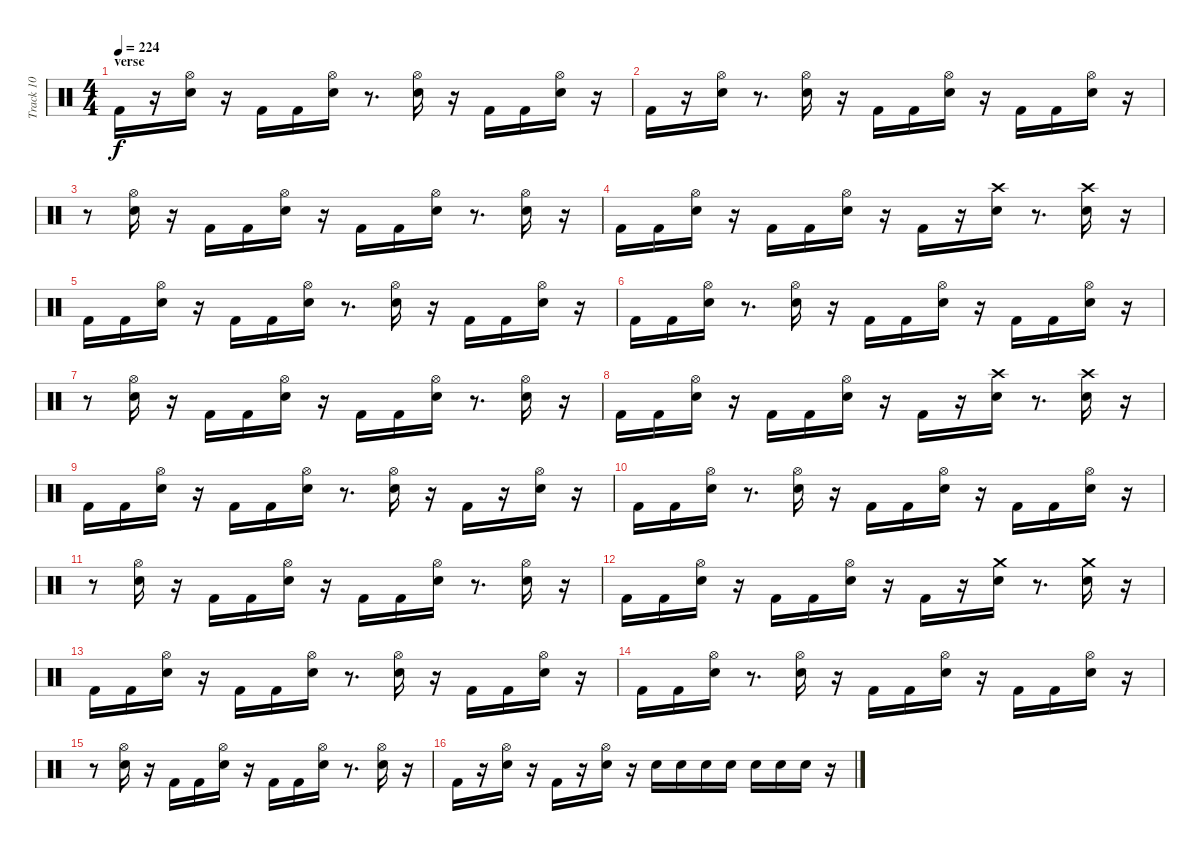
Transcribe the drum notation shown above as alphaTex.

\track ("Track 10" "Track 10") {instrument percussion}
\staff {score}
\articulation defaults
\ts (4 4)
\section ("" "verse")
\tempo 224
\clef neutral
\ks c "Kick (hit) 2".16{dy f}
r.16 ("Snare (hit) 2" "Hi-Hat (open)").16 r.16 "Kick (hit) 2".16 "Kick (hit) 2".16 ("Snare (hit) 2" "Hi-Hat (open)").16 r.8{d} ("Snare (hit) 2" "Hi-Hat (open)").16 r.16 "Kick (hit) 2".16 "Kick (hit) 2".16 ("Snare (hit) 2" "Hi-Hat (open)").16 r.16 |
"Kick (hit) 2".16 r.16 ("Snare (hit) 2" "Hi-Hat (open)").16 r.8{d} ("Snare (hit) 2" "Hi-Hat (open)").16 r.16 "Kick (hit) 2".16 "Kick (hit) 2".16 ("Snare (hit) 2" "Hi-Hat (open)").16 r.16 "Kick (hit) 2".16 "Kick (hit) 2".16 ("Snare (hit) 2" "Hi-Hat (open)").16 r.16 |
r.8 ("Snare (hit) 2" "Hi-Hat (open)").16 r.16 "Kick (hit) 2".16 "Kick (hit) 2".16 ("Snare (hit) 2" "Hi-Hat (open)").16 r.16 "Kick (hit) 2".16 "Kick (hit) 2".16 ("Snare (hit) 2" "Hi-Hat (open)").16 r.8{d} ("Snare (hit) 2" "Hi-Hat (open)").16 r.16 |
"Kick (hit) 2".16 "Kick (hit) 2".16 ("Snare (hit) 2" "Hi-Hat (open)").16 r.16 "Kick (hit) 2".16 "Kick (hit) 2".16 ("Snare (hit) 2" "Hi-Hat (open)").16 r.16 "Kick (hit) 2".16 r.16 ("Snare (hit) 2" "Crash high (hit)").16 r.8{d} ("Snare (hit) 2" "Crash high (hit)").16 r.16 |
"Kick (hit) 2".16 "Kick (hit) 2".16 ("Snare (hit) 2" "Hi-Hat (open)").16 r.16 "Kick (hit) 2".16 "Kick (hit) 2".16 ("Snare (hit) 2" "Hi-Hat (open)").16 r.8{d} ("Snare (hit) 2" "Hi-Hat (open)").16 r.16 "Kick (hit) 2".16 "Kick (hit) 2".16 ("Snare (hit) 2" "Hi-Hat (open)").16 r.16 |
"Kick (hit) 2".16 "Kick (hit) 2".16 ("Snare (hit) 2" "Hi-Hat (open)").16 r.8{d} ("Snare (hit) 2" "Hi-Hat (open)").16 r.16 "Kick (hit) 2".16 "Kick (hit) 2".16 ("Snare (hit) 2" "Hi-Hat (open)").16 r.16 "Kick (hit) 2".16 "Kick (hit) 2".16 ("Snare (hit) 2" "Hi-Hat (open)").16 r.16 |
r.8 ("Snare (hit) 2" "Hi-Hat (open)").16 r.16 "Kick (hit) 2".16 "Kick (hit) 2".16 ("Snare (hit) 2" "Hi-Hat (open)").16 r.16 "Kick (hit) 2".16 "Kick (hit) 2".16 ("Snare (hit) 2" "Hi-Hat (open)").16 r.8{d} ("Snare (hit) 2" "Hi-Hat (open)").16 r.16 |
"Kick (hit) 2".16 "Kick (hit) 2".16 ("Snare (hit) 2" "Hi-Hat (open)").16 r.16 "Kick (hit) 2".16 "Kick (hit) 2".16 ("Snare (hit) 2" "Hi-Hat (open)").16 r.16 "Kick (hit) 2".16 r.16 ("Snare (hit) 2" "Crash high (hit)").16 r.8{d} ("Snare (hit) 2" "Crash high (hit)").16 r.16 |
"Kick (hit) 2".16 "Kick (hit) 2".16 ("Snare (hit) 2" "Hi-Hat (open)").16 r.16 "Kick (hit) 2".16 "Kick (hit) 2".16 ("Snare (hit) 2" "Hi-Hat (open)").16 r.8{d} ("Snare (hit) 2" "Hi-Hat (open)").16 r.16 "Kick (hit) 2".16 r.16 ("Snare (hit) 2" "Hi-Hat (open)").16 r.16 |
"Kick (hit) 2".16 "Kick (hit) 2".16 ("Snare (hit) 2" "Hi-Hat (open)").16 r.8{d} ("Snare (hit) 2" "Hi-Hat (open)").16 r.16 "Kick (hit) 2".16 "Kick (hit) 2".16 ("Snare (hit) 2" "Hi-Hat (open)").16 r.16 "Kick (hit) 2".16 "Kick (hit) 2".16 ("Snare (hit) 2" "Hi-Hat (open)").16 r.16 |
r.8 ("Snare (hit) 2" "Hi-Hat (open)").16 r.16 "Kick (hit) 2".16 "Kick (hit) 2".16 ("Snare (hit) 2" "Hi-Hat (open)").16 r.16 "Kick (hit) 2".16 "Kick (hit) 2".16 ("Snare (hit) 2" "Hi-Hat (open)").16 r.8{d} ("Snare (hit) 2" "Hi-Hat (open)").16 r.16 |
"Kick (hit) 2".16 "Kick (hit) 2".16 ("Snare (hit) 2" "Hi-Hat (open)").16 r.16 "Kick (hit) 2".16 "Kick (hit) 2".16 ("Snare (hit) 2" "Hi-Hat (open)").16 r.16 "Kick (hit) 2".16 r.16 ("Snare (hit) 2" "Crash medium (hit)").16 r.8{d} ("Snare (hit) 2" "Crash medium (hit)").16 r.16 |
"Kick (hit) 2".16 "Kick (hit) 2".16 ("Snare (hit) 2" "Hi-Hat (open)").16 r.16 "Kick (hit) 2".16 "Kick (hit) 2".16 ("Snare (hit) 2" "Hi-Hat (open)").16 r.8{d} ("Snare (hit) 2" "Hi-Hat (open)").16 r.16 "Kick (hit) 2".16 "Kick (hit) 2".16 ("Snare (hit) 2" "Hi-Hat (open)").16 r.16 |
"Kick (hit) 2".16 "Kick (hit) 2".16 ("Snare (hit) 2" "Hi-Hat (open)").16 r.8{d} ("Snare (hit) 2" "Hi-Hat (open)").16 r.16 "Kick (hit) 2".16 "Kick (hit) 2".16 ("Snare (hit) 2" "Hi-Hat (open)").16 r.16 "Kick (hit) 2".16 "Kick (hit) 2".16 ("Snare (hit) 2" "Hi-Hat (open)").16 r.16 |
r.8 ("Snare (hit) 2" "Hi-Hat (open)").16 r.16 "Kick (hit) 2".16 "Kick (hit) 2".16 ("Snare (hit) 2" "Hi-Hat (open)").16 r.16 "Kick (hit) 2".16 "Kick (hit) 2".16 ("Snare (hit) 2" "Hi-Hat (open)").16 r.8{d} ("Snare (hit) 2" "Hi-Hat (open)").16 r.16 |
"Kick (hit) 2".16 r.16 ("Snare (hit) 2" "Hi-Hat (open)").16 r.16 "Kick (hit) 2".16 r.16 ("Snare (hit) 2" "Hi-Hat (open)").16 r.16 "Snare (hit) 2".16 "Snare (hit) 2".16 "Snare (hit) 2".16 "Snare (hit) 2".16 "Snare (hit) 2".16 "Snare (hit) 2".16 "Snare (hit) 2".16 r.16
